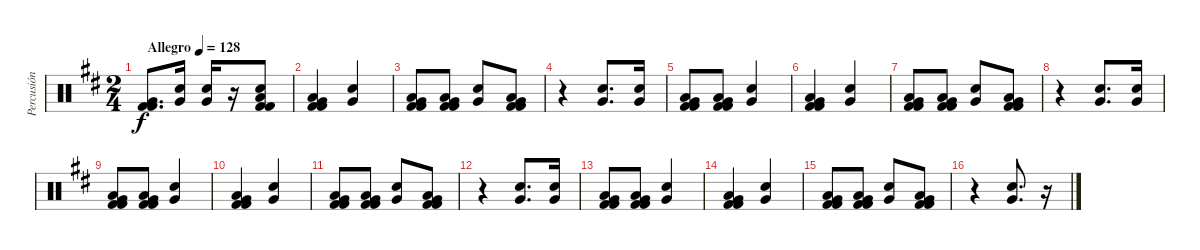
\track ("Percusión" "Percusión") {instrument percussion}
\staff {score}
\articulation defaults
\ts (2 4)
\tempo (128 "Allegro")
\clef neutral
\ks d
("Kick (hit) 2" "Kick (hit) 2" "Very Low Tom (hit)").8{d dy f} ("Electric Snare (hit)" "Very Low Tom (hit)").16 ("Electric Snare (hit)" "Very Low Tom (hit)").16 r.16 ("Low Floor Tom (hit)" "Snare (hit) 2" "Kick (hit) 2" "Kick (hit) 2").8 |
("Kick (hit) 2" "Low Floor Tom (hit)" "Kick (hit) 2" "Very Low Tom (hit)").4 ("Electric Snare (hit)" "Very Low Tom (hit)").4 |
("Kick (hit) 2" "Low Floor Tom (hit)" "Kick (hit) 2" "Very Low Tom (hit)").8 ("Kick (hit) 2" "Low Floor Tom (hit)" "Kick (hit) 2" "Very Low Tom (hit)").8 ("Electric Snare (hit)" "Very Low Tom (hit)").8 ("Kick (hit) 2" "Low Floor Tom (hit)" "Kick (hit) 2" "Very Low Tom (hit)").8 |
r.4 ("Electric Snare (hit)" "Very Low Tom (hit)").8{d} ("Electric Snare (hit)" "Very Low Tom (hit)").16 |
("Kick (hit) 2" "Low Floor Tom (hit)" "Kick (hit) 2" "Very Low Tom (hit)").8 ("Kick (hit) 2" "Low Floor Tom (hit)" "Kick (hit) 2" "Very Low Tom (hit)").8 ("Electric Snare (hit)" "Very Low Tom (hit)").4 |
("Kick (hit) 2" "Low Floor Tom (hit)" "Kick (hit) 2" "Very Low Tom (hit)").4 ("Electric Snare (hit)" "Very Low Tom (hit)").4 |
("Kick (hit) 2" "Low Floor Tom (hit)" "Kick (hit) 2" "Very Low Tom (hit)").8 ("Kick (hit) 2" "Low Floor Tom (hit)" "Kick (hit) 2" "Very Low Tom (hit)").8 ("Electric Snare (hit)" "Very Low Tom (hit)").8 ("Kick (hit) 2" "Low Floor Tom (hit)" "Kick (hit) 2" "Very Low Tom (hit)").8 |
r.4 ("Electric Snare (hit)" "Very Low Tom (hit)").8{d} ("Electric Snare (hit)" "Very Low Tom (hit)").16 |
("Kick (hit) 2" "Low Floor Tom (hit)" "Kick (hit) 2" "Very Low Tom (hit)").8 ("Kick (hit) 2" "Low Floor Tom (hit)" "Kick (hit) 2" "Very Low Tom (hit)").8 ("Electric Snare (hit)" "Very Low Tom (hit)").4 |
("Kick (hit) 2" "Low Floor Tom (hit)" "Kick (hit) 2" "Very Low Tom (hit)").4 ("Electric Snare (hit)" "Very Low Tom (hit)").4 |
("Kick (hit) 2" "Low Floor Tom (hit)" "Kick (hit) 2" "Very Low Tom (hit)").8 ("Kick (hit) 2" "Low Floor Tom (hit)" "Kick (hit) 2" "Very Low Tom (hit)").8 ("Electric Snare (hit)" "Very Low Tom (hit)").8 ("Kick (hit) 2" "Low Floor Tom (hit)" "Kick (hit) 2" "Very Low Tom (hit)").8 |
r.4 ("Electric Snare (hit)" "Very Low Tom (hit)").8{d} ("Electric Snare (hit)" "Very Low Tom (hit)").16 |
("Kick (hit) 2" "Low Floor Tom (hit)" "Kick (hit) 2" "Very Low Tom (hit)").8 ("Kick (hit) 2" "Low Floor Tom (hit)" "Kick (hit) 2" "Very Low Tom (hit)").8 ("Electric Snare (hit)" "Very Low Tom (hit)").4 |
("Kick (hit) 2" "Low Floor Tom (hit)" "Kick (hit) 2" "Very Low Tom (hit)").4 ("Electric Snare (hit)" "Very Low Tom (hit)").4 |
("Kick (hit) 2" "Low Floor Tom (hit)" "Kick (hit) 2" "Very Low Tom (hit)").8 ("Kick (hit) 2" "Low Floor Tom (hit)" "Kick (hit) 2" "Very Low Tom (hit)").8 ("Electric Snare (hit)" "Very Low Tom (hit)").8 ("Kick (hit) 2" "Low Floor Tom (hit)" "Kick (hit) 2" "Very Low Tom (hit)").8 |
r.4 ("Electric Snare (hit)" "Very Low Tom (hit)").8{d} r.16
